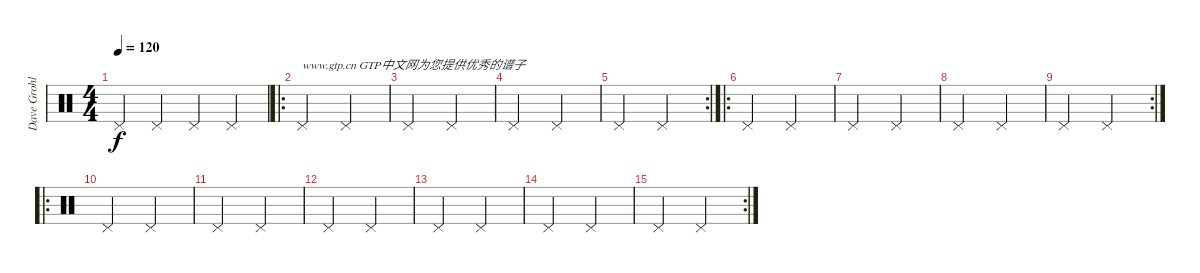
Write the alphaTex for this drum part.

\track ("Dave Grohl" "Dave Grohl") {instrument percussion}
\staff {score}
\articulation defaults
\ts (4 4)
\tempo 120
\clef neutral
\ks c "Pedal Hi-Hat (hit)".4{dy f} "Pedal Hi-Hat (hit)".4 "Pedal Hi-Hat (hit)".4 "Pedal Hi-Hat (hit)".4
|
\ro "Pedal Hi-Hat (hit)".2{txt "www.gtp.cn GTP中文网为您提供优秀的谱子"} "Pedal Hi-Hat (hit)".2
|
"Pedal Hi-Hat (hit)".2 "Pedal Hi-Hat (hit)".2 |
"Pedal Hi-Hat (hit)".2 "Pedal Hi-Hat (hit)".2 |
\rc 2 "Pedal Hi-Hat (hit)".2 "Pedal Hi-Hat (hit)".2
|
\ro "Pedal Hi-Hat (hit)".2 "Pedal Hi-Hat (hit)".2
|
"Pedal Hi-Hat (hit)".2 "Pedal Hi-Hat (hit)".2 |
"Pedal Hi-Hat (hit)".2 "Pedal Hi-Hat (hit)".2 |
\rc 2 "Pedal Hi-Hat (hit)".2 "Pedal Hi-Hat (hit)".2
|
\ro "Pedal Hi-Hat (hit)".2 "Pedal Hi-Hat (hit)".2
|
"Pedal Hi-Hat (hit)".2 "Pedal Hi-Hat (hit)".2 |
"Pedal Hi-Hat (hit)".2 "Pedal Hi-Hat (hit)".2 |
"Pedal Hi-Hat (hit)".2 "Pedal Hi-Hat (hit)".2 |
"Pedal Hi-Hat (hit)".2 "Pedal Hi-Hat (hit)".2 |
\rc 2 "Pedal Hi-Hat (hit)".2 "Pedal Hi-Hat (hit)".2
